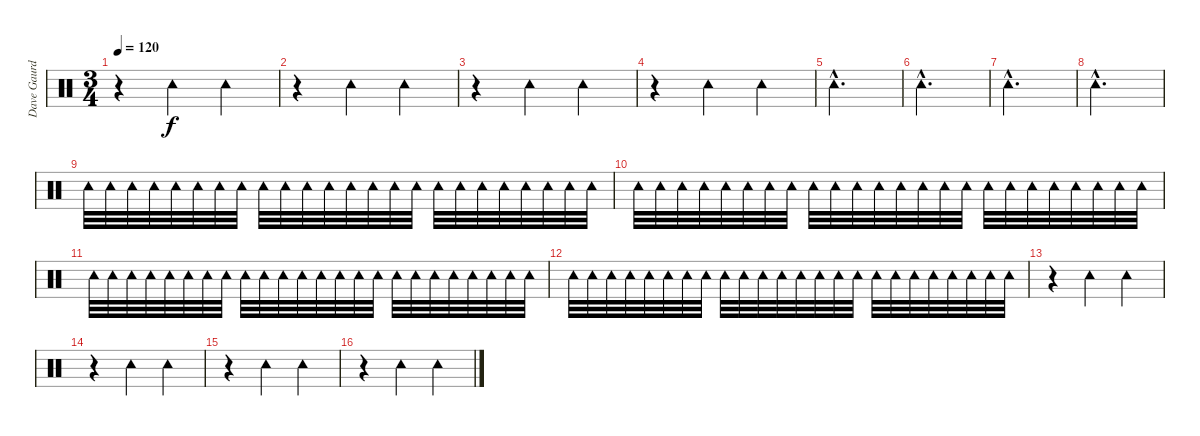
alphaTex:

\track ("Dave Gaurd" "Dave Gaurd") {instrument percussion}
\staff {score}
\articulation defaults
\ts (3 4)
\tempo 120
\clef neutral
\ks c
r.4{dy f} "Tambourine (hit)".4 "Tambourine (hit)".4 |
r.4 "Tambourine (hit)".4 "Tambourine (hit)".4 |
r.4 "Tambourine (hit)".4 "Tambourine (hit)".4 |
r.4 "Tambourine (hit)".4 "Tambourine (hit)".4 |
"Tambourine (hit)"{hac}.2{d} |
"Tambourine (hit)"{hac}.2{d} |
"Tambourine (hit)"{hac}.2{d} |
"Tambourine (hit)"{hac}.2{d} |
"Tambourine (hit)".32 "Tambourine (hit)".32 "Tambourine (hit)".32 "Tambourine (hit)".32 "Tambourine (hit)".32 "Tambourine (hit)".32 "Tambourine (hit)".32 "Tambourine (hit)".32 "Tambourine (hit)".32 "Tambourine (hit)".32 "Tambourine (hit)".32 "Tambourine (hit)".32 "Tambourine (hit)".32 "Tambourine (hit)".32 "Tambourine (hit)".32 "Tambourine (hit)".32 "Tambourine (hit)".32 "Tambourine (hit)".32 "Tambourine (hit)".32 "Tambourine (hit)".32 "Tambourine (hit)".32 "Tambourine (hit)".32 "Tambourine (hit)".32 "Tambourine (hit)".32 |
"Tambourine (hit)".32 "Tambourine (hit)".32 "Tambourine (hit)".32 "Tambourine (hit)".32 "Tambourine (hit)".32 "Tambourine (hit)".32 "Tambourine (hit)".32 "Tambourine (hit)".32 "Tambourine (hit)".32 "Tambourine (hit)".32 "Tambourine (hit)".32 "Tambourine (hit)".32 "Tambourine (hit)".32 "Tambourine (hit)".32 "Tambourine (hit)".32 "Tambourine (hit)".32 "Tambourine (hit)".32 "Tambourine (hit)".32 "Tambourine (hit)".32 "Tambourine (hit)".32 "Tambourine (hit)".32 "Tambourine (hit)".32 "Tambourine (hit)".32 "Tambourine (hit)".32 |
"Tambourine (hit)".32 "Tambourine (hit)".32 "Tambourine (hit)".32 "Tambourine (hit)".32 "Tambourine (hit)".32 "Tambourine (hit)".32 "Tambourine (hit)".32 "Tambourine (hit)".32 "Tambourine (hit)".32 "Tambourine (hit)".32 "Tambourine (hit)".32 "Tambourine (hit)".32 "Tambourine (hit)".32 "Tambourine (hit)".32 "Tambourine (hit)".32 "Tambourine (hit)".32 "Tambourine (hit)".32 "Tambourine (hit)".32 "Tambourine (hit)".32 "Tambourine (hit)".32 "Tambourine (hit)".32 "Tambourine (hit)".32 "Tambourine (hit)".32 "Tambourine (hit)".32 |
"Tambourine (hit)".32 "Tambourine (hit)".32 "Tambourine (hit)".32 "Tambourine (hit)".32 "Tambourine (hit)".32 "Tambourine (hit)".32 "Tambourine (hit)".32 "Tambourine (hit)".32 "Tambourine (hit)".32 "Tambourine (hit)".32 "Tambourine (hit)".32 "Tambourine (hit)".32 "Tambourine (hit)".32 "Tambourine (hit)".32 "Tambourine (hit)".32 "Tambourine (hit)".32 "Tambourine (hit)".32 "Tambourine (hit)".32 "Tambourine (hit)".32 "Tambourine (hit)".32 "Tambourine (hit)".32 "Tambourine (hit)".32 "Tambourine (hit)".32 "Tambourine (hit)".32 |
r.4 "Tambourine (hit)".4 "Tambourine (hit)".4 |
r.4 "Tambourine (hit)".4 "Tambourine (hit)".4 |
r.4 "Tambourine (hit)".4 "Tambourine (hit)".4 |
r.4 "Tambourine (hit)".4 "Tambourine (hit)".4
